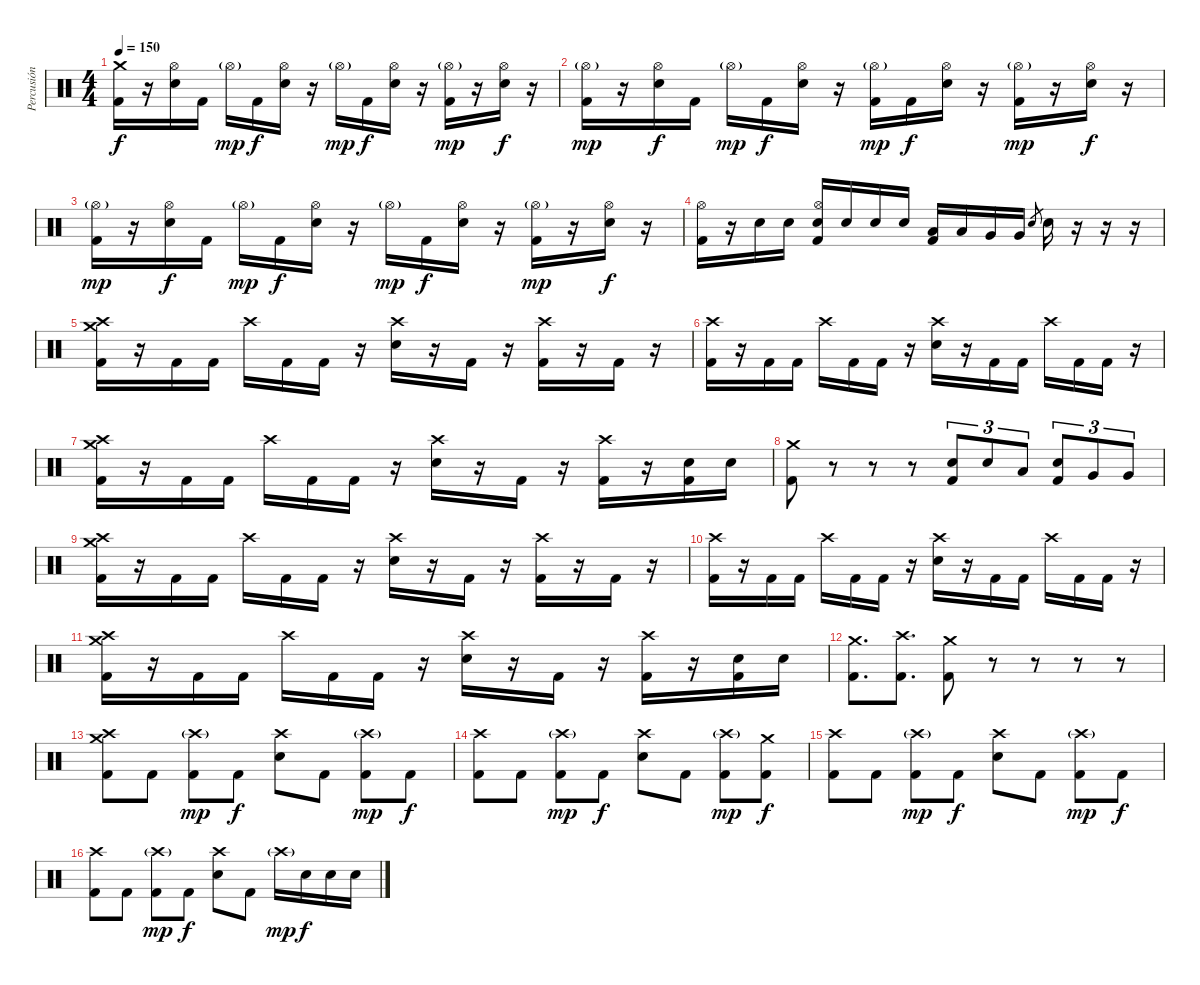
\track ("Percusión" "Percusión") {instrument percussion}
\staff {score}
\articulation defaults
\ts (4 4)
\tempo 150
\clef neutral
\ks c
("Crash medium (hit)" "Kick (hit) 2").16{dy f} r.16 ("Hi-Hat (open)" "Electric Snare (hit)").16 "Kick (hit) 2".16 "Hi-Hat (open)"{g}.16{dy mp} "Kick (hit) 2".16{dy f} ("Hi-Hat (open)" "Electric Snare (hit)").16 r.16 "Hi-Hat (open)"{g}.16{dy mp} "Kick (hit) 2".16{dy f} ("Hi-Hat (open)" "Electric Snare (hit)").16 r.16 ("Hi-Hat (open)"{g} "Kick (hit) 2").16{dy mp} r.16 ("Hi-Hat (open)" "Electric Snare (hit)").16{dy f} r.16 |
("Hi-Hat (open)"{g} "Kick (hit) 2").16{dy mp} r.16 ("Hi-Hat (open)" "Electric Snare (hit)").16{dy f} "Kick (hit) 2".16 "Hi-Hat (open)"{g}.16{dy mp} "Kick (hit) 2".16{dy f} ("Hi-Hat (open)" "Electric Snare (hit)").16 r.16 ("Hi-Hat (open)"{g} "Kick (hit) 2").16{dy mp} "Kick (hit) 2".16{dy f} ("Hi-Hat (open)" "Electric Snare (hit)").16 r.16 ("Hi-Hat (open)"{g} "Kick (hit) 2").16{dy mp} r.16 ("Hi-Hat (open)" "Electric Snare (hit)").16{dy f} r.16 |
("Hi-Hat (open)"{g} "Kick (hit) 2").16{dy mp} r.16 ("Hi-Hat (open)" "Electric Snare (hit)").16{dy f} "Kick (hit) 2".16 "Hi-Hat (open)"{g}.16{dy mp} "Kick (hit) 2".16{dy f} ("Hi-Hat (open)" "Electric Snare (hit)").16 r.16 "Hi-Hat (open)"{g}.16{dy mp} "Kick (hit) 2".16{dy f} ("Hi-Hat (open)" "Electric Snare (hit)").16 r.16 ("Hi-Hat (open)"{g} "Kick (hit) 2").16{dy mp} r.16 ("Hi-Hat (open)" "Electric Snare (hit)").16{dy f} r.16 |
("Hi-Hat (open)" "Kick (hit) 2").16 r.16 "Electric Snare (hit)".16 "Electric Snare (hit)".16 ("Hi-Hat (open)" "Electric Snare (hit)" "Kick (hit) 2").16 "Electric Snare (hit)".16 "Electric Snare (hit)".16 "Electric Snare (hit)".16 ("Low Tom (hit)" "Kick (hit) 2").16 "Low Tom (hit)".16 "Very Low Tom (hit)".16 "Very Low Tom (hit)".16 "Electric Snare (hit)".8{gr} "Electric Snare (hit)".16 r.16 r.16 r.16 |
("Crash medium (hit)" "Crash high (hit)" "Kick (hit) 2").16 r.16 "Kick (hit) 2".16 "Kick (hit) 2".16 "Crash high (hit)".16 "Kick (hit) 2".16 "Kick (hit) 2".16 r.16 ("Crash high (hit)" "Electric Snare (hit)").16 r.16 "Kick (hit) 2".16 r.16 ("Crash high (hit)" "Kick (hit) 2").16 r.16 "Kick (hit) 2".16 r.16 |
("Crash high (hit)" "Kick (hit) 2").16 r.16 "Kick (hit) 2".16 "Kick (hit) 2".16 "Crash high (hit)".16 "Kick (hit) 2".16 "Kick (hit) 2".16 r.16 ("Crash high (hit)" "Electric Snare (hit)").16 r.16 "Kick (hit) 2".16 "Kick (hit) 2".16 "Crash high (hit)".16 "Kick (hit) 2".16 "Kick (hit) 2".16 r.16 |
("Crash medium (hit)" "Crash high (hit)" "Kick (hit) 2").16 r.16 "Kick (hit) 2".16 "Kick (hit) 2".16 "Crash high (hit)".16 "Kick (hit) 2".16 "Kick (hit) 2".16 r.16 ("Crash high (hit)" "Electric Snare (hit)").16 r.16 "Kick (hit) 2".16 r.16 ("Crash high (hit)" "Kick (hit) 2").16 r.16 ("Electric Snare (hit)" "Kick (hit) 2").16 "Electric Snare (hit)".16 |
("Crash medium (hit)" "Kick (hit) 2").8 r.8 r.8 r.8 ("Electric Snare (hit)" "Kick (hit) 2").8{tu (3 2)} "Electric Snare (hit)".8{tu (3 2)} "Low Tom (hit)".8{tu (3 2)} ("Electric Snare (hit)" "Kick (hit) 2").8{tu (3 2)} "Very Low Tom (hit)".8{tu (3 2)} "Very Low Tom (hit)".8{tu (3 2)} |
("Crash medium (hit)" "Crash high (hit)" "Kick (hit) 2").16 r.16 "Kick (hit) 2".16 "Kick (hit) 2".16 "Crash high (hit)".16 "Kick (hit) 2".16 "Kick (hit) 2".16 r.16 ("Crash high (hit)" "Electric Snare (hit)").16 r.16 "Kick (hit) 2".16 r.16 ("Crash high (hit)" "Kick (hit) 2").16 r.16 "Kick (hit) 2".16 r.16 |
("Crash high (hit)" "Kick (hit) 2").16 r.16 "Kick (hit) 2".16 "Kick (hit) 2".16 "Crash high (hit)".16 "Kick (hit) 2".16 "Kick (hit) 2".16 r.16 ("Crash high (hit)" "Electric Snare (hit)").16 r.16 "Kick (hit) 2".16 "Kick (hit) 2".16 "Crash high (hit)".16 "Kick (hit) 2".16 "Kick (hit) 2".16 r.16 |
("Crash medium (hit)" "Crash high (hit)" "Kick (hit) 2").16 r.16 "Kick (hit) 2".16 "Kick (hit) 2".16 "Crash high (hit)".16 "Kick (hit) 2".16 "Kick (hit) 2".16 r.16 ("Crash high (hit)" "Electric Snare (hit)").16 r.16 "Kick (hit) 2".16 r.16 ("Crash high (hit)" "Kick (hit) 2").16 r.16 ("Electric Snare (hit)" "Kick (hit) 2").16 "Electric Snare (hit)".16 |
("Crash medium (hit)" "Kick (hit) 2").8{d} ("Crash high (hit)" "Kick (hit) 2").8{d} ("Crash medium (hit)" "Kick (hit) 2").8 r.8 r.8 r.8 r.8 |
("Crash medium (hit)" "Crash high (hit)" "Kick (hit) 2").8 "Kick (hit) 2".8 ("Crash high (hit)"{g} "Kick (hit) 2").8{dy mp} "Kick (hit) 2".8{dy f} ("Crash high (hit)" "Electric Snare (hit)").8 "Kick (hit) 2".8 ("Crash high (hit)"{g} "Kick (hit) 2").8{dy mp} "Kick (hit) 2".8{dy f} |
("Crash high (hit)" "Kick (hit) 2").8 "Kick (hit) 2".8 ("Crash high (hit)"{g} "Kick (hit) 2").8{dy mp} "Kick (hit) 2".8{dy f} ("Crash high (hit)" "Electric Snare (hit)").8 "Kick (hit) 2".8 ("Crash high (hit)"{g} "Kick (hit) 2").8{dy mp} ("Crash medium (hit)" "Kick (hit) 2").8{dy f} |
("Crash high (hit)" "Kick (hit) 2").8 "Kick (hit) 2".8 ("Crash high (hit)"{g} "Kick (hit) 2").8{dy mp} "Kick (hit) 2".8{dy f} ("Crash high (hit)" "Electric Snare (hit)").8 "Kick (hit) 2".8 ("Crash high (hit)"{g} "Kick (hit) 2").8{dy mp} "Kick (hit) 2".8{dy f} |
("Crash high (hit)" "Kick (hit) 2").8 "Kick (hit) 2".8 ("Crash high (hit)"{g} "Kick (hit) 2").8{dy mp} "Kick (hit) 2".8{dy f} ("Crash high (hit)" "Electric Snare (hit)").8 "Kick (hit) 2".8 "Crash high (hit)"{g}.16{dy mp} "Electric Snare (hit)".16{dy f} "Electric Snare (hit)".16 "Electric Snare (hit)".16
